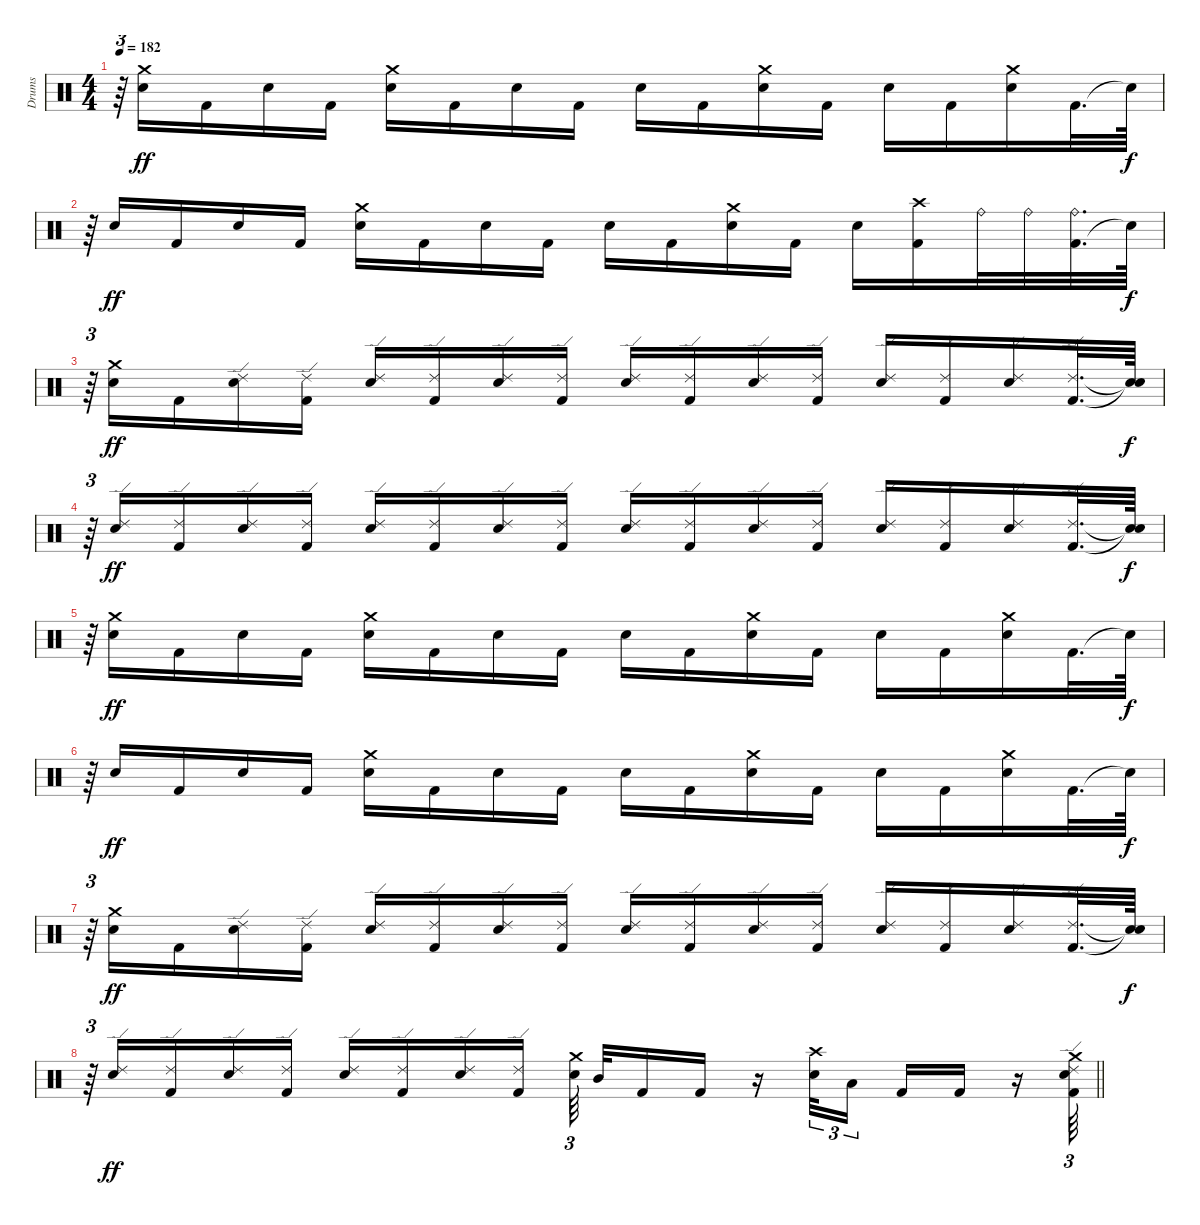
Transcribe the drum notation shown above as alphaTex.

\track ("Drums" "Drums") {instrument percussion}
\staff {score}
\articulation defaults
\ts (4 4)
\tempo 182
\clef neutral
\ks c
r.64{tu (3 2) dy ff} ("Crash medium (hit)" "Snare (hit) 2").16 "Kick (hit) 2".16 "Snare (hit) 2".16 "Kick (hit) 2".16 ("Crash medium (hit)" "Snare (hit) 2").16 "Kick (hit) 2".16 "Snare (hit) 2".16 "Kick (hit) 2".16 "Snare (hit) 2".16 "Kick (hit) 2".16 ("Crash medium (hit)" "Snare (hit) 2").16 "Kick (hit) 2".16 "Snare (hit) 2".16 "Kick (hit) 2".16 ("Crash medium (hit)" "Snare (hit) 2").16 "Kick (hit) 2".32{d} "Snare (hit)"{t}.64{dy f} |
r.64{tu (3 2)} "Snare (hit) 2".16{dy ff} "Kick (hit) 2".16 "Snare (hit) 2".16 "Kick (hit) 2".16 ("Crash medium (hit)" "Snare (hit) 2").16 "Kick (hit) 2".16 "Snare (hit) 2".16 "Kick (hit) 2".16 "Snare (hit) 2".16 "Kick (hit) 2".16 ("Crash medium (hit)" "Snare (hit) 2").16 "Kick (hit) 2".16 "Snare (hit) 2".16 ("Crash high (hit)" "Kick (hit) 2").16 "Ride (bell)".32 "Ride (bell)".32 ("Kick (hit) 2" "Ride (bell)").32{d} "Snare (hit)"{t}.64{dy f} |
r.64{tu (3 2)} ("Crash medium (hit)" "Snare (hit) 2").16{dy ff} "Kick (hit) 2".16 ("Snare (hit) 2" "Ride (edge) 2").16 ("Kick (hit) 2" "Ride (edge) 2").16 ("Snare (hit) 2" "Ride (edge) 2").16 ("Kick (hit) 2" "Ride (edge) 2").16 ("Snare (hit) 2" "Ride (edge) 2").16 ("Kick (hit) 2" "Ride (edge) 2").16 ("Snare (hit) 2" "Ride (edge) 2").16 ("Kick (hit) 2" "Ride (edge) 2").16 ("Snare (hit) 2" "Ride (edge) 2").16 ("Kick (hit) 2" "Ride (edge) 2").16 ("Snare (hit) 2" "Ride (edge) 2").16 ("Kick (hit) 2" "Ride (edge) 2").16 ("Snare (hit) 2" "Ride (edge) 2").16 ("Kick (hit) 2" "Ride (edge) 2").32{d} ("Snare (hit)"{t} "Snare (hit)"{t}).64{dy f} |
r.64{tu (3 2)} ("Snare (hit) 2" "Ride (edge) 2").16{dy ff} ("Kick (hit) 2" "Ride (edge) 2").16 ("Snare (hit) 2" "Ride (edge) 2").16 ("Kick (hit) 2" "Ride (edge) 2").16 ("Snare (hit) 2" "Ride (edge) 2").16 ("Kick (hit) 2" "Ride (edge) 2").16 ("Snare (hit) 2" "Ride (edge) 2").16 ("Kick (hit) 2" "Ride (edge) 2").16 ("Snare (hit) 2" "Ride (edge) 2").16 ("Kick (hit) 2" "Ride (edge) 2").16 ("Snare (hit) 2" "Ride (edge) 2").16 ("Kick (hit) 2" "Ride (edge) 2").16 ("Snare (hit) 2" "Ride (edge) 2").16 ("Kick (hit) 2" "Ride (edge) 2").16 ("Snare (hit) 2" "Ride (edge) 2").16 ("Kick (hit) 2" "Ride (edge) 2").32{d} ("Snare (hit)"{t} "Snare (hit)"{t}).64{dy f} |
r.64{tu (3 2)} ("Crash medium (hit)" "Snare (hit) 2").16{dy ff} "Kick (hit) 2".16 "Snare (hit) 2".16 "Kick (hit) 2".16 ("Crash medium (hit)" "Snare (hit) 2").16 "Kick (hit) 2".16 "Snare (hit) 2".16 "Kick (hit) 2".16 "Snare (hit) 2".16 "Kick (hit) 2".16 ("Crash medium (hit)" "Snare (hit) 2").16 "Kick (hit) 2".16 "Snare (hit) 2".16 "Kick (hit) 2".16 ("Crash medium (hit)" "Snare (hit) 2").16 "Kick (hit) 2".32{d} "Snare (hit)"{t}.64{dy f} |
r.64{tu (3 2)} "Snare (hit) 2".16{dy ff} "Kick (hit) 2".16 "Snare (hit) 2".16 "Kick (hit) 2".16 ("Crash medium (hit)" "Snare (hit) 2").16 "Kick (hit) 2".16 "Snare (hit) 2".16 "Kick (hit) 2".16 "Snare (hit) 2".16 "Kick (hit) 2".16 ("Crash medium (hit)" "Snare (hit) 2").16 "Kick (hit) 2".16 "Snare (hit) 2".16 "Kick (hit) 2".16 ("Crash medium (hit)" "Snare (hit) 2").16 "Kick (hit) 2".32{d} "Snare (hit)"{t}.64{dy f} |
r.64{tu (3 2)} ("Crash medium (hit)" "Snare (hit) 2").16{dy ff} "Kick (hit) 2".16 ("Snare (hit) 2" "Ride (edge) 2").16 ("Kick (hit) 2" "Ride (edge) 2").16 ("Snare (hit) 2" "Ride (edge) 2").16 ("Kick (hit) 2" "Ride (edge) 2").16 ("Snare (hit) 2" "Ride (edge) 2").16 ("Kick (hit) 2" "Ride (edge) 2").16 ("Snare (hit) 2" "Ride (edge) 2").16 ("Kick (hit) 2" "Ride (edge) 2").16 ("Snare (hit) 2" "Ride (edge) 2").16 ("Kick (hit) 2" "Ride (edge) 2").16 ("Snare (hit) 2" "Ride (edge) 2").16 ("Kick (hit) 2" "Ride (edge) 2").16 ("Snare (hit) 2" "Ride (edge) 2").16 ("Kick (hit) 2" "Ride (edge) 2").32{d} ("Snare (hit)"{t} "Snare (hit)"{t}).64{dy f} |
\barLineRight lightlight
r.64{tu (3 2)} ("Snare (hit) 2" "Ride (edge) 2").16{dy ff} ("Kick (hit) 2" "Ride (edge) 2").16 ("Snare (hit) 2" "Ride (edge) 2").16 ("Kick (hit) 2" "Ride (edge) 2").16 ("Snare (hit) 2" "Ride (edge) 2").16 ("Kick (hit) 2" "Ride (edge) 2").16 ("Snare (hit) 2" "Ride (edge) 2").16 ("Kick (hit) 2" "Ride (edge) 2").16 ("Crash medium (hit)" "Snare (hit) 2").64{tu (3 2) beam splitsecondary} "Mid Tom (hit)".32 "Kick (hit) 2".16 "Kick (hit) 2".16 r.16 ("Crash high (hit)" "Snare (hit) 2").32{tu (3 2)} "Low Tom (hit)".16{tu (3 2) beam splitsecondary} "Kick (hit) 2".16 "Kick (hit) 2".16 r.16 ("Kick (hit) 2" "Snare (hit) 2" "Ride (edge) 2" "Crash medium (hit)").64{tu (3 2)}
